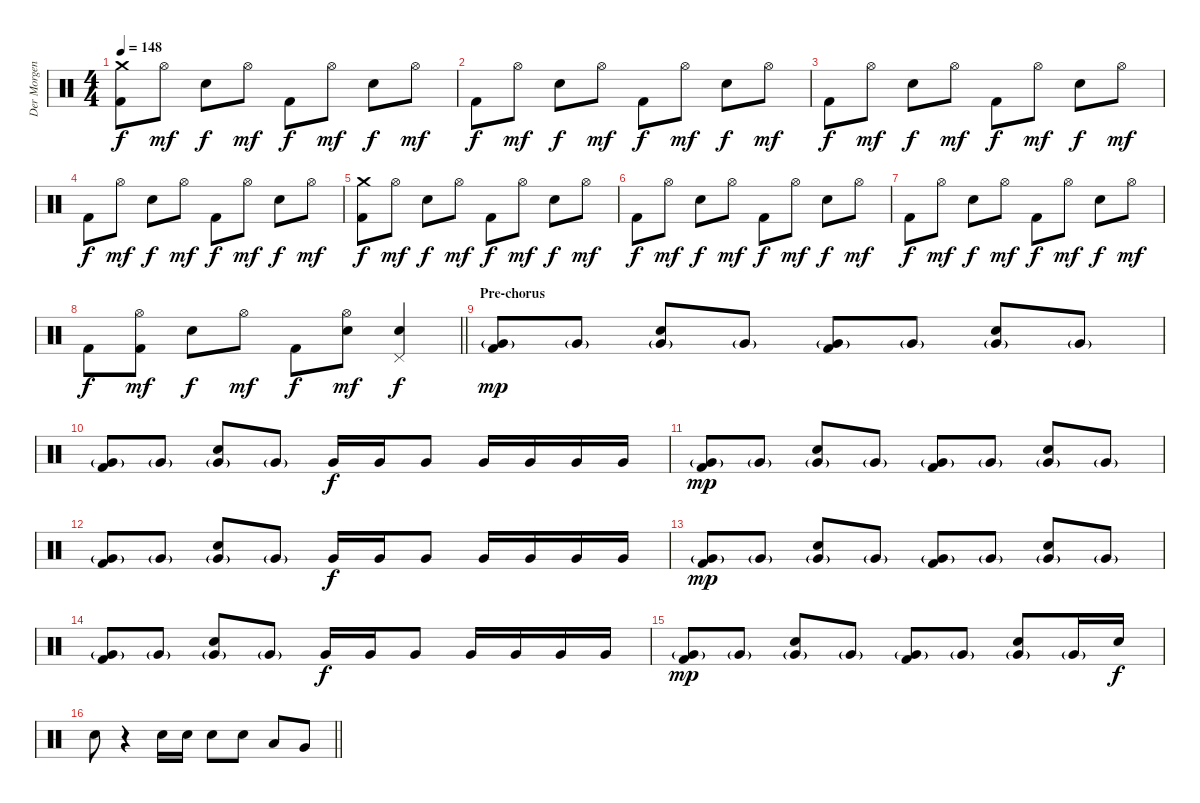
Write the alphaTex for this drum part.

\track ("Der Morgenstern" "Der Morgen") {instrument percussion}
\staff {score}
\articulation defaults
\ts (4 4)
\tempo 148
\clef neutral
\ks c
("Crash medium (hit)" "Kick (hit) 2").8{dy f} "Hi-Hat (open)".8{dy mf} "Electric Snare (hit)".8{dy f} "Hi-Hat (open)".8{dy mf} "Kick (hit) 2".8{dy f} "Hi-Hat (open)".8{dy mf} "Electric Snare (hit)".8{dy f} "Hi-Hat (open)".8{dy mf} |
"Kick (hit) 2".8{dy f} "Hi-Hat (open)".8{dy mf} "Electric Snare (hit)".8{dy f} "Hi-Hat (open)".8{dy mf} "Kick (hit) 2".8{dy f} "Hi-Hat (open)".8{dy mf} "Electric Snare (hit)".8{dy f} "Hi-Hat (open)".8{dy mf} |
"Kick (hit) 2".8{dy f} "Hi-Hat (open)".8{dy mf} "Electric Snare (hit)".8{dy f} "Hi-Hat (open)".8{dy mf} "Kick (hit) 2".8{dy f} "Hi-Hat (open)".8{dy mf} "Electric Snare (hit)".8{dy f} "Hi-Hat (open)".8{dy mf} |
"Kick (hit) 2".8{dy f} "Hi-Hat (open)".8{dy mf} "Electric Snare (hit)".8{dy f} "Hi-Hat (open)".8{dy mf} "Kick (hit) 2".8{dy f} "Hi-Hat (open)".8{dy mf} "Electric Snare (hit)".8{dy f} "Hi-Hat (open)".8{dy mf} |
("Crash medium (hit)" "Kick (hit) 2").8{dy f} "Hi-Hat (open)".8{dy mf} "Electric Snare (hit)".8{dy f} "Hi-Hat (open)".8{dy mf} "Kick (hit) 2".8{dy f} "Hi-Hat (open)".8{dy mf} "Electric Snare (hit)".8{dy f} "Hi-Hat (open)".8{dy mf} |
"Kick (hit) 2".8{dy f} "Hi-Hat (open)".8{dy mf} "Electric Snare (hit)".8{dy f} "Hi-Hat (open)".8{dy mf} "Kick (hit) 2".8{dy f} "Hi-Hat (open)".8{dy mf} "Electric Snare (hit)".8{dy f} "Hi-Hat (open)".8{dy mf} |
"Kick (hit) 2".8{dy f} "Hi-Hat (open)".8{dy mf} "Electric Snare (hit)".8{dy f} "Hi-Hat (open)".8{dy mf} "Kick (hit) 2".8{dy f} "Hi-Hat (open)".8{dy mf} "Electric Snare (hit)".8{dy f} "Hi-Hat (open)".8{dy mf} |
\barLineRight lightlight "Kick (hit) 2".8{dy f}
("Hi-Hat (open)" "Kick (hit) 2").8{dy mf} "Electric Snare (hit)".8{dy f} "Hi-Hat (open)".8{dy mf} "Kick (hit) 2".8{dy f} ("Hi-Hat (open)" "Electric Snare (hit)").8{dy mf} ("Pedal Hi-Hat (hit)" "Electric Snare (hit)").4{dy f} |
\section ("" "Pre-chorus")
("Very Low Tom (hit)"{g} "Kick (hit) 2").8{dy mp} "Very Low Tom (hit)"{g}.8 ("Very Low Tom (hit)"{g} "Electric Snare (hit)").8 "Very Low Tom (hit)"{g}.8 ("Very Low Tom (hit)"{g} "Kick (hit) 2").8 "Very Low Tom (hit)"{g}.8 ("Very Low Tom (hit)"{g} "Electric Snare (hit)").8 "Very Low Tom (hit)"{g}.8 |
("Very Low Tom (hit)"{g} "Kick (hit) 2").8 "Very Low Tom (hit)"{g}.8 ("Very Low Tom (hit)"{g} "Electric Snare (hit)").8 "Very Low Tom (hit)"{g}.8 "Very Low Tom (hit)".16{dy f} "Very Low Tom (hit)".16 "Very Low Tom (hit)".8 "Very Low Tom (hit)".16 "Very Low Tom (hit)".16 "Very Low Tom (hit)".16 "Very Low Tom (hit)".16 |
("Very Low Tom (hit)"{g} "Kick (hit) 2").8{dy mp} "Very Low Tom (hit)"{g}.8 ("Very Low Tom (hit)"{g} "Electric Snare (hit)").8 "Very Low Tom (hit)"{g}.8 ("Very Low Tom (hit)"{g} "Kick (hit) 2").8 "Very Low Tom (hit)"{g}.8 ("Very Low Tom (hit)"{g} "Electric Snare (hit)").8 "Very Low Tom (hit)"{g}.8 |
("Very Low Tom (hit)"{g} "Kick (hit) 2").8 "Very Low Tom (hit)"{g}.8 ("Very Low Tom (hit)"{g} "Electric Snare (hit)").8 "Very Low Tom (hit)"{g}.8 "Very Low Tom (hit)".16{dy f} "Very Low Tom (hit)".16 "Very Low Tom (hit)".8 "Very Low Tom (hit)".16 "Very Low Tom (hit)".16 "Very Low Tom (hit)".16 "Very Low Tom (hit)".16 |
("Very Low Tom (hit)"{g} "Kick (hit) 2").8{dy mp} "Very Low Tom (hit)"{g}.8 ("Very Low Tom (hit)"{g} "Electric Snare (hit)").8 "Very Low Tom (hit)"{g}.8 ("Very Low Tom (hit)"{g} "Kick (hit) 2").8 "Very Low Tom (hit)"{g}.8 ("Very Low Tom (hit)"{g} "Electric Snare (hit)").8 "Very Low Tom (hit)"{g}.8 |
("Very Low Tom (hit)"{g} "Kick (hit) 2").8 "Very Low Tom (hit)"{g}.8 ("Very Low Tom (hit)"{g} "Electric Snare (hit)").8 "Very Low Tom (hit)"{g}.8 "Very Low Tom (hit)".16{dy f} "Very Low Tom (hit)".16 "Very Low Tom (hit)".8 "Very Low Tom (hit)".16 "Very Low Tom (hit)".16 "Very Low Tom (hit)".16 "Very Low Tom (hit)".16 |
("Very Low Tom (hit)"{g} "Kick (hit) 2").8{dy mp} "Very Low Tom (hit)"{g}.8 ("Very Low Tom (hit)"{g} "Electric Snare (hit)").8 "Very Low Tom (hit)"{g}.8 ("Very Low Tom (hit)"{g} "Kick (hit) 2").8 "Very Low Tom (hit)"{g}.8 ("Very Low Tom (hit)"{g} "Electric Snare (hit)").8 "Very Low Tom (hit)"{g}.16 "Electric Snare (hit)".16{dy f} |
\barLineRight lightlight "Electric Snare (hit)".8
r.4 "Electric Snare (hit)".16 "Electric Snare (hit)".16 "Electric Snare (hit)".8 "Electric Snare (hit)".8 "Low Tom (hit)".8 "Very Low Tom (hit)".8
